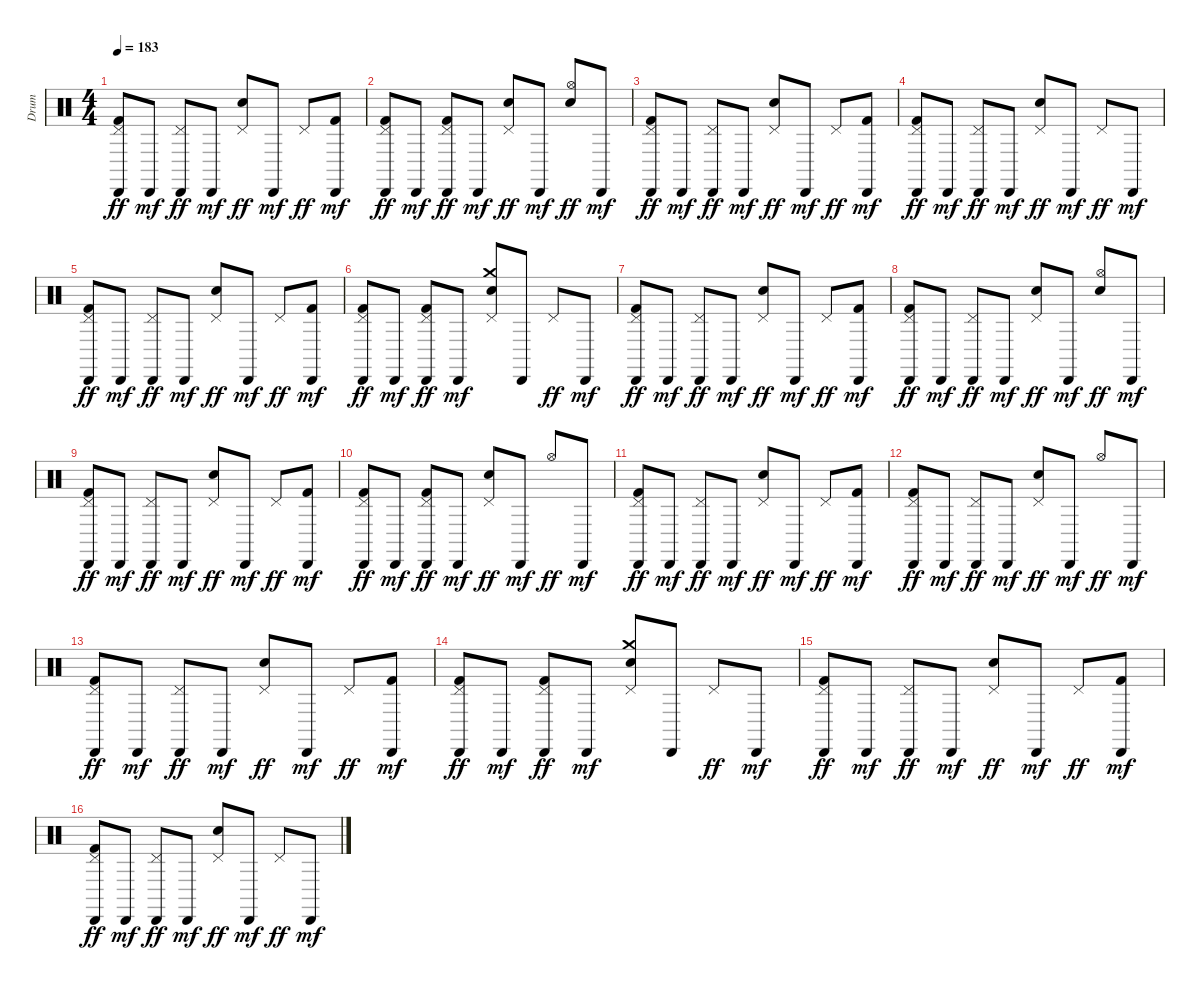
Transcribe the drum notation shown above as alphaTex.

\track ("Drum" "Drum") {instrument percussion}
\staff {score}
\articulation defaults
\ts (4 4)
\tempo 183
\clef neutral
\ks c
("Cabasa (hit)" "Kick (hit) 2" "Pedal Hi-Hat (hit)").8{dy ff} "Cabasa (hit)".8{dy mf} ("Cabasa (hit)" "Pedal Hi-Hat (hit)").8{dy ff} "Cabasa (hit)".8{dy mf} ("Electric Snare (hit)" "Pedal Hi-Hat (hit)").8{dy ff} "Cabasa (hit)".8{dy mf} "Pedal Hi-Hat (hit)".8{dy ff} ("Cabasa (hit)" "Kick (hit) 2").8{dy mf} |
("Cabasa (hit)" "Kick (hit) 2" "Pedal Hi-Hat (hit)").8{dy ff} "Cabasa (hit)".8{dy mf} ("Cabasa (hit)" "Kick (hit) 2" "Pedal Hi-Hat (hit)").8{dy ff} "Cabasa (hit)".8{dy mf} ("Electric Snare (hit)" "Pedal Hi-Hat (hit)").8{dy ff} "Cabasa (hit)".8{dy mf} ("Electric Snare (hit)" "Hi-Hat (open)").8{dy ff} "Cabasa (hit)".8{dy mf} |
("Cabasa (hit)" "Kick (hit) 2" "Pedal Hi-Hat (hit)").8{dy ff} "Cabasa (hit)".8{dy mf} ("Cabasa (hit)" "Pedal Hi-Hat (hit)").8{dy ff} "Cabasa (hit)".8{dy mf} ("Electric Snare (hit)" "Pedal Hi-Hat (hit)").8{dy ff} "Cabasa (hit)".8{dy mf} "Pedal Hi-Hat (hit)".8{dy ff} ("Cabasa (hit)" "Kick (hit) 2").8{dy mf} |
("Cabasa (hit)" "Kick (hit) 2" "Pedal Hi-Hat (hit)").8{dy ff} "Cabasa (hit)".8{dy mf} ("Cabasa (hit)" "Pedal Hi-Hat (hit)").8{dy ff} "Cabasa (hit)".8{dy mf} ("Electric Snare (hit)" "Pedal Hi-Hat (hit)").8{dy ff} "Cabasa (hit)".8{dy mf} "Pedal Hi-Hat (hit)".8{dy ff} "Cabasa (hit)".8{dy mf} |
("Cabasa (hit)" "Kick (hit) 2" "Pedal Hi-Hat (hit)").8{dy ff} "Cabasa (hit)".8{dy mf} ("Cabasa (hit)" "Pedal Hi-Hat (hit)").8{dy ff} "Cabasa (hit)".8{dy mf} ("Electric Snare (hit)" "Pedal Hi-Hat (hit)").8{dy ff} "Cabasa (hit)".8{dy mf} "Pedal Hi-Hat (hit)".8{dy ff} ("Cabasa (hit)" "Kick (hit) 2").8{dy mf} |
("Cabasa (hit)" "Kick (hit) 2" "Pedal Hi-Hat (hit)").8{dy ff} "Cabasa (hit)".8{dy mf} ("Cabasa (hit)" "Kick (hit) 2" "Pedal Hi-Hat (hit)").8{dy ff} "Cabasa (hit)".8{dy mf} ("Electric Snare (hit)" "Pedal Hi-Hat (hit)" "Crash medium (hit)").8 "Cabasa (hit)".8 "Pedal Hi-Hat (hit)".8{dy ff} "Cabasa (hit)".8{dy mf} |
("Cabasa (hit)" "Kick (hit) 2" "Pedal Hi-Hat (hit)").8{dy ff} "Cabasa (hit)".8{dy mf} ("Cabasa (hit)" "Pedal Hi-Hat (hit)").8{dy ff} "Cabasa (hit)".8{dy mf} ("Electric Snare (hit)" "Pedal Hi-Hat (hit)").8{dy ff} "Cabasa (hit)".8{dy mf} "Pedal Hi-Hat (hit)".8{dy ff} ("Cabasa (hit)" "Kick (hit) 2").8{dy mf} |
("Cabasa (hit)" "Kick (hit) 2" "Pedal Hi-Hat (hit)").8{dy ff} "Cabasa (hit)".8{dy mf} ("Cabasa (hit)" "Pedal Hi-Hat (hit)").8{dy ff} "Cabasa (hit)".8{dy mf} ("Electric Snare (hit)" "Pedal Hi-Hat (hit)").8{dy ff} "Cabasa (hit)".8{dy mf} ("Electric Snare (hit)" "Hi-Hat (open)").8{dy ff} "Cabasa (hit)".8{dy mf} |
("Cabasa (hit)" "Kick (hit) 2" "Pedal Hi-Hat (hit)").8{dy ff} "Cabasa (hit)".8{dy mf} ("Cabasa (hit)" "Pedal Hi-Hat (hit)").8{dy ff} "Cabasa (hit)".8{dy mf} ("Electric Snare (hit)" "Pedal Hi-Hat (hit)").8{dy ff} "Cabasa (hit)".8{dy mf} "Pedal Hi-Hat (hit)".8{dy ff} ("Cabasa (hit)" "Kick (hit) 2").8{dy mf} |
("Cabasa (hit)" "Kick (hit) 2" "Pedal Hi-Hat (hit)").8{dy ff} "Cabasa (hit)".8{dy mf} ("Cabasa (hit)" "Kick (hit) 2" "Pedal Hi-Hat (hit)").8{dy ff} "Cabasa (hit)".8{dy mf} ("Electric Snare (hit)" "Pedal Hi-Hat (hit)").8{dy ff} "Cabasa (hit)".8{dy mf} "Hi-Hat (open)".8{dy ff} "Cabasa (hit)".8{dy mf} |
("Cabasa (hit)" "Kick (hit) 2" "Pedal Hi-Hat (hit)").8{dy ff} "Cabasa (hit)".8{dy mf} ("Cabasa (hit)" "Pedal Hi-Hat (hit)").8{dy ff} "Cabasa (hit)".8{dy mf} ("Electric Snare (hit)" "Pedal Hi-Hat (hit)").8{dy ff} "Cabasa (hit)".8{dy mf} "Pedal Hi-Hat (hit)".8{dy ff} ("Cabasa (hit)" "Kick (hit) 2").8{dy mf} |
("Cabasa (hit)" "Kick (hit) 2" "Pedal Hi-Hat (hit)").8{dy ff} "Cabasa (hit)".8{dy mf} ("Cabasa (hit)" "Pedal Hi-Hat (hit)").8{dy ff} "Cabasa (hit)".8{dy mf} ("Electric Snare (hit)" "Pedal Hi-Hat (hit)").8{dy ff} "Cabasa (hit)".8{dy mf} "Hi-Hat (open)".8{dy ff} "Cabasa (hit)".8{dy mf} |
("Cabasa (hit)" "Kick (hit) 2" "Pedal Hi-Hat (hit)").8{dy ff} "Cabasa (hit)".8{dy mf} ("Cabasa (hit)" "Pedal Hi-Hat (hit)").8{dy ff} "Cabasa (hit)".8{dy mf} ("Electric Snare (hit)" "Pedal Hi-Hat (hit)").8{dy ff} "Cabasa (hit)".8{dy mf} "Pedal Hi-Hat (hit)".8{dy ff} ("Cabasa (hit)" "Kick (hit) 2").8{dy mf} |
("Cabasa (hit)" "Kick (hit) 2" "Pedal Hi-Hat (hit)").8{dy ff} "Cabasa (hit)".8{dy mf} ("Cabasa (hit)" "Kick (hit) 2" "Pedal Hi-Hat (hit)").8{dy ff} "Cabasa (hit)".8{dy mf} ("Electric Snare (hit)" "Pedal Hi-Hat (hit)" "Crash medium (hit)").8 "Cabasa (hit)".8 "Pedal Hi-Hat (hit)".8{dy ff} "Cabasa (hit)".8{dy mf} |
("Cabasa (hit)" "Kick (hit) 2" "Pedal Hi-Hat (hit)").8{dy ff} "Cabasa (hit)".8{dy mf} ("Cabasa (hit)" "Pedal Hi-Hat (hit)").8{dy ff} "Cabasa (hit)".8{dy mf} ("Electric Snare (hit)" "Pedal Hi-Hat (hit)").8{dy ff} "Cabasa (hit)".8{dy mf} "Pedal Hi-Hat (hit)".8{dy ff} ("Cabasa (hit)" "Kick (hit) 2").8{dy mf} |
("Cabasa (hit)" "Kick (hit) 2" "Pedal Hi-Hat (hit)").8{dy ff} "Cabasa (hit)".8{dy mf} ("Cabasa (hit)" "Pedal Hi-Hat (hit)").8{dy ff} "Cabasa (hit)".8{dy mf} ("Electric Snare (hit)" "Pedal Hi-Hat (hit)").8{dy ff} "Cabasa (hit)".8{dy mf} "Pedal Hi-Hat (hit)".8{dy ff} "Cabasa (hit)".8{dy mf}
